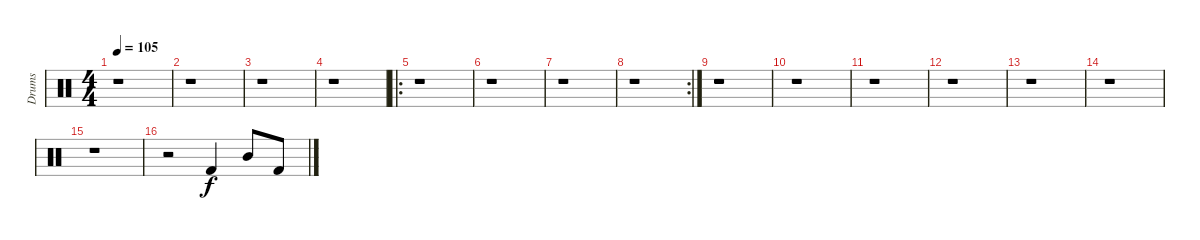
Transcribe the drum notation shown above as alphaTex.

\track ("Drums" "Drums") {instrument percussion}
\staff {score}
\articulation defaults
\ts (4 4)
\tempo 105
\clef neutral
\ks c
r.1{dy f} |
r.1 |
r.1 |
r.1 |
\ro
r.1 |
r.1 |
r.1 |
\rc 2
r.1 |
r.1 |
r.1 |
r.1 |
r.1 |
r.1 |
r.1 |
r.1 |
r.2 "Kick (hit) 2".4 "Mid Tom (hit)".8 "Kick (hit) 2".8
